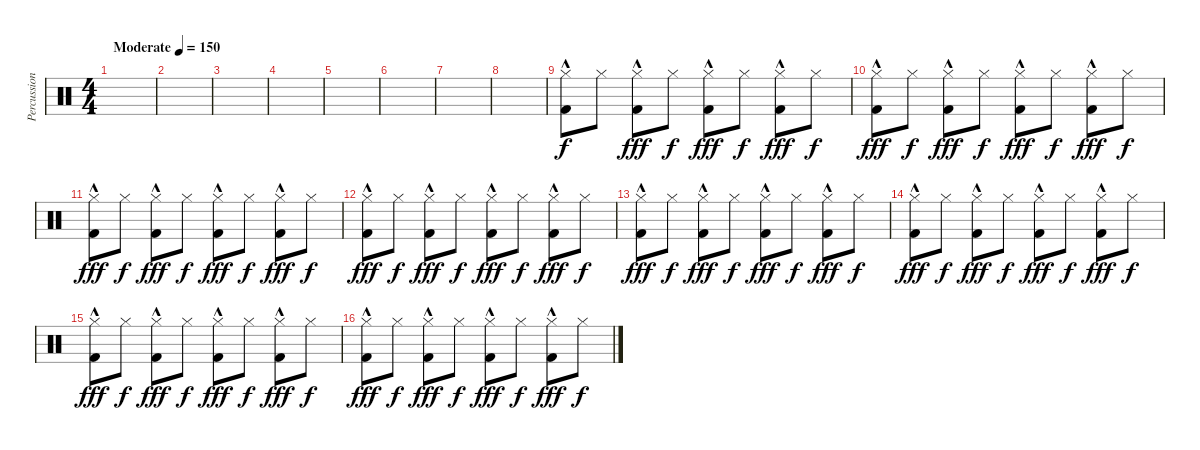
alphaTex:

\track ("Percussion" "Percussion") {instrument percussion}
\staff {score}
\articulation defaults
\ts (4 4)
\tempo (150 "Moderate")
\clef neutral
\ks c
|
|
|
|
|
|
|
|
("Hi-Hat (closed)" "Kick (hit) 2"{hac}).8 "Hi-Hat (closed)".8{dy f} ("Hi-Hat (closed)" "Kick (hit) 2"{hac}).8{dy fff} "Hi-Hat (closed)".8{dy f} ("Hi-Hat (closed)" "Kick (hit) 2"{hac}).8{dy fff} "Hi-Hat (closed)".8{dy f} ("Hi-Hat (closed)" "Kick (hit) 2"{hac}).8{dy fff} "Hi-Hat (closed)".8{dy f} |
("Hi-Hat (closed)" "Kick (hit) 2"{hac}).8{dy fff} "Hi-Hat (closed)".8{dy f} ("Hi-Hat (closed)" "Kick (hit) 2"{hac}).8{dy fff} "Hi-Hat (closed)".8{dy f} ("Hi-Hat (closed)" "Kick (hit) 2"{hac}).8{dy fff} "Hi-Hat (closed)".8{dy f} ("Hi-Hat (closed)" "Kick (hit) 2"{hac}).8{dy fff} "Hi-Hat (closed)".8{dy f} |
("Hi-Hat (closed)" "Kick (hit) 2"{hac}).8{dy fff} "Hi-Hat (closed)".8{dy f} ("Hi-Hat (closed)" "Kick (hit) 2"{hac}).8{dy fff} "Hi-Hat (closed)".8{dy f} ("Hi-Hat (closed)" "Kick (hit) 2"{hac}).8{dy fff} "Hi-Hat (closed)".8{dy f} ("Hi-Hat (closed)" "Kick (hit) 2"{hac}).8{dy fff} "Hi-Hat (closed)".8{dy f} |
("Hi-Hat (closed)" "Kick (hit) 2"{hac}).8{dy fff} "Hi-Hat (closed)".8{dy f} ("Hi-Hat (closed)" "Kick (hit) 2"{hac}).8{dy fff} "Hi-Hat (closed)".8{dy f} ("Hi-Hat (closed)" "Kick (hit) 2"{hac}).8{dy fff} "Hi-Hat (closed)".8{dy f} ("Hi-Hat (closed)" "Kick (hit) 2"{hac}).8{dy fff} "Hi-Hat (closed)".8{dy f} |
("Hi-Hat (closed)" "Kick (hit) 2"{hac}).8{dy fff} "Hi-Hat (closed)".8{dy f} ("Hi-Hat (closed)" "Kick (hit) 2"{hac}).8{dy fff} "Hi-Hat (closed)".8{dy f} ("Hi-Hat (closed)" "Kick (hit) 2"{hac}).8{dy fff} "Hi-Hat (closed)".8{dy f} ("Hi-Hat (closed)" "Kick (hit) 2"{hac}).8{dy fff} "Hi-Hat (closed)".8{dy f} |
("Hi-Hat (closed)" "Kick (hit) 2"{hac}).8{dy fff} "Hi-Hat (closed)".8{dy f} ("Hi-Hat (closed)" "Kick (hit) 2"{hac}).8{dy fff} "Hi-Hat (closed)".8{dy f} ("Hi-Hat (closed)" "Kick (hit) 2"{hac}).8{dy fff} "Hi-Hat (closed)".8{dy f} ("Hi-Hat (closed)" "Kick (hit) 2"{hac}).8{dy fff} "Hi-Hat (closed)".8{dy f} |
("Hi-Hat (closed)" "Kick (hit) 2"{hac}).8{dy fff} "Hi-Hat (closed)".8{dy f} ("Hi-Hat (closed)" "Kick (hit) 2"{hac}).8{dy fff} "Hi-Hat (closed)".8{dy f} ("Hi-Hat (closed)" "Kick (hit) 2"{hac}).8{dy fff} "Hi-Hat (closed)".8{dy f} ("Hi-Hat (closed)" "Kick (hit) 2"{hac}).8{dy fff} "Hi-Hat (closed)".8{dy f} |
("Hi-Hat (closed)" "Kick (hit) 2"{hac}).8{dy fff} "Hi-Hat (closed)".8{dy f} ("Hi-Hat (closed)" "Kick (hit) 2"{hac}).8{dy fff} "Hi-Hat (closed)".8{dy f} ("Hi-Hat (closed)" "Kick (hit) 2"{hac}).8{dy fff} "Hi-Hat (closed)".8{dy f} ("Hi-Hat (closed)" "Kick (hit) 2"{hac}).8{dy fff} "Hi-Hat (closed)".8{dy f}
